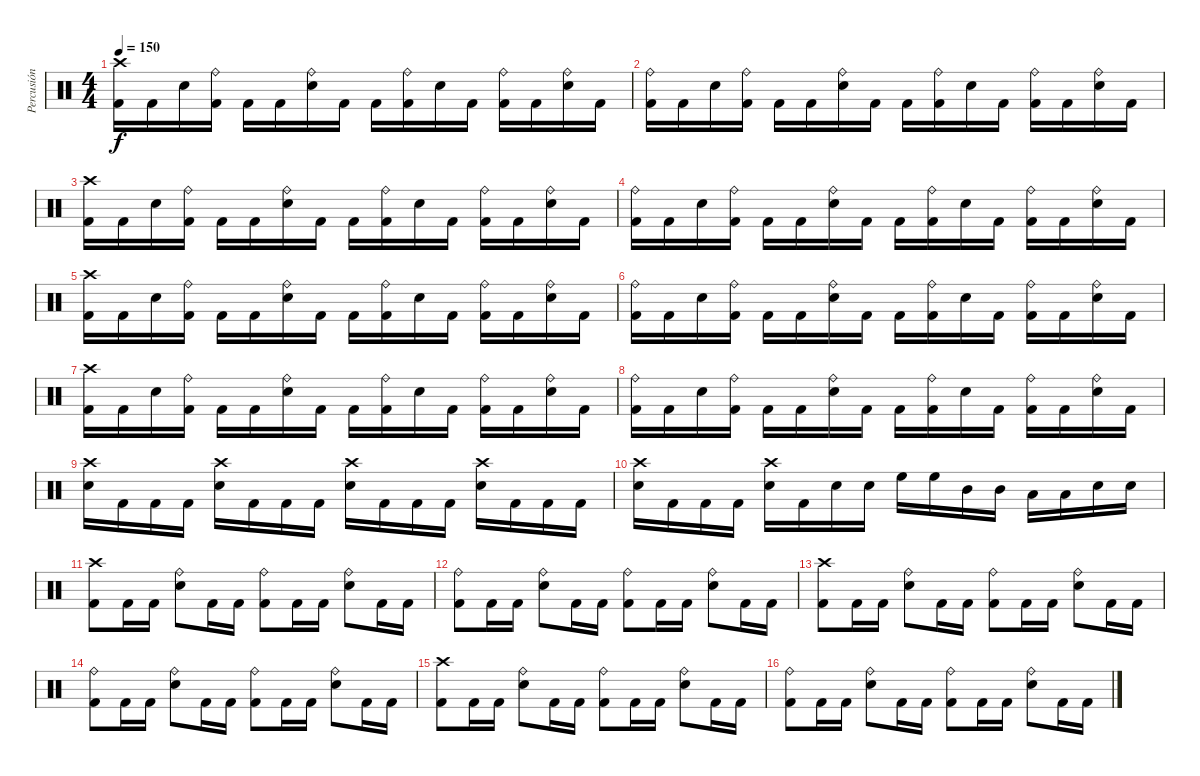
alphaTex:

\track ("Percusión" "Percusión") {instrument percussion}
\staff {score}
\articulation defaults
\ts (4 4)
\tempo 150
\clef neutral
\ks c
("Crash high (hit)" "Kick (hit) 2").16{dy f} "Kick (hit) 2".16 "Electric Snare (hit)".16 ("Ride (bell)" "Kick (hit) 2").16 "Kick (hit) 2".16 "Kick (hit) 2".16 ("Ride (bell)" "Electric Snare (hit)").16 "Kick (hit) 2".16 "Kick (hit) 2".16 ("Ride (bell)" "Kick (hit) 2").16 "Electric Snare (hit)".16 "Kick (hit) 2".16 ("Ride (bell)" "Kick (hit) 2").16 "Kick (hit) 2".16 ("Ride (bell)" "Electric Snare (hit)").16 "Kick (hit) 2".16 |
("Ride (bell)" "Kick (hit) 2").16 "Kick (hit) 2".16 "Electric Snare (hit)".16 ("Ride (bell)" "Kick (hit) 2").16 "Kick (hit) 2".16 "Kick (hit) 2".16 ("Ride (bell)" "Electric Snare (hit)").16 "Kick (hit) 2".16 "Kick (hit) 2".16 ("Ride (bell)" "Kick (hit) 2").16 "Electric Snare (hit)".16 "Kick (hit) 2".16 ("Ride (bell)" "Kick (hit) 2").16 "Kick (hit) 2".16 ("Ride (bell)" "Electric Snare (hit)").16 "Kick (hit) 2".16 |
("Crash high (hit)" "Kick (hit) 2").16 "Kick (hit) 2".16 "Electric Snare (hit)".16 ("Ride (bell)" "Kick (hit) 2").16 "Kick (hit) 2".16 "Kick (hit) 2".16 ("Ride (bell)" "Electric Snare (hit)").16 "Kick (hit) 2".16 "Kick (hit) 2".16 ("Ride (bell)" "Kick (hit) 2").16 "Electric Snare (hit)".16 "Kick (hit) 2".16 ("Ride (bell)" "Kick (hit) 2").16 "Kick (hit) 2".16 ("Ride (bell)" "Electric Snare (hit)").16 "Kick (hit) 2".16 |
("Ride (bell)" "Kick (hit) 2").16 "Kick (hit) 2".16 "Electric Snare (hit)".16 ("Ride (bell)" "Kick (hit) 2").16 "Kick (hit) 2".16 "Kick (hit) 2".16 ("Ride (bell)" "Electric Snare (hit)").16 "Kick (hit) 2".16 "Kick (hit) 2".16 ("Ride (bell)" "Kick (hit) 2").16 "Electric Snare (hit)".16 "Kick (hit) 2".16 ("Ride (bell)" "Kick (hit) 2").16 "Kick (hit) 2".16 ("Ride (bell)" "Electric Snare (hit)").16 "Kick (hit) 2".16 |
("Crash high (hit)" "Kick (hit) 2").16 "Kick (hit) 2".16 "Electric Snare (hit)".16 ("Ride (bell)" "Kick (hit) 2").16 "Kick (hit) 2".16 "Kick (hit) 2".16 ("Ride (bell)" "Electric Snare (hit)").16 "Kick (hit) 2".16 "Kick (hit) 2".16 ("Ride (bell)" "Kick (hit) 2").16 "Electric Snare (hit)".16 "Kick (hit) 2".16 ("Ride (bell)" "Kick (hit) 2").16 "Kick (hit) 2".16 ("Ride (bell)" "Electric Snare (hit)").16 "Kick (hit) 2".16 |
("Ride (bell)" "Kick (hit) 2").16 "Kick (hit) 2".16 "Electric Snare (hit)".16 ("Ride (bell)" "Kick (hit) 2").16 "Kick (hit) 2".16 "Kick (hit) 2".16 ("Ride (bell)" "Electric Snare (hit)").16 "Kick (hit) 2".16 "Kick (hit) 2".16 ("Ride (bell)" "Kick (hit) 2").16 "Electric Snare (hit)".16 "Kick (hit) 2".16 ("Ride (bell)" "Kick (hit) 2").16 "Kick (hit) 2".16 ("Ride (bell)" "Electric Snare (hit)").16 "Kick (hit) 2".16 |
("Crash high (hit)" "Kick (hit) 2").16 "Kick (hit) 2".16 "Electric Snare (hit)".16 ("Ride (bell)" "Kick (hit) 2").16 "Kick (hit) 2".16 "Kick (hit) 2".16 ("Ride (bell)" "Electric Snare (hit)").16 "Kick (hit) 2".16 "Kick (hit) 2".16 ("Ride (bell)" "Kick (hit) 2").16 "Electric Snare (hit)".16 "Kick (hit) 2".16 ("Ride (bell)" "Kick (hit) 2").16 "Kick (hit) 2".16 ("Ride (bell)" "Electric Snare (hit)").16 "Kick (hit) 2".16 |
("Ride (bell)" "Kick (hit) 2").16 "Kick (hit) 2".16 "Electric Snare (hit)".16 ("Ride (bell)" "Kick (hit) 2").16 "Kick (hit) 2".16 "Kick (hit) 2".16 ("Ride (bell)" "Electric Snare (hit)").16 "Kick (hit) 2".16 "Kick (hit) 2".16 ("Ride (bell)" "Kick (hit) 2").16 "Electric Snare (hit)".16 "Kick (hit) 2".16 ("Ride (bell)" "Kick (hit) 2").16 "Kick (hit) 2".16 ("Ride (bell)" "Electric Snare (hit)").16 "Kick (hit) 2".16 |
("Crash high (hit)" "Electric Snare (hit)").16 "Kick (hit) 2".16 "Kick (hit) 2".16 "Kick (hit) 2".16 ("Crash high (hit)" "Electric Snare (hit)").16 "Kick (hit) 2".16 "Kick (hit) 2".16 "Kick (hit) 2".16 ("Crash high (hit)" "Electric Snare (hit)").16 "Kick (hit) 2".16 "Kick (hit) 2".16 "Kick (hit) 2".16 ("Crash high (hit)" "Electric Snare (hit)").16 "Kick (hit) 2".16 "Kick (hit) 2".16 "Kick (hit) 2".16 |
("Crash high (hit)" "Electric Snare (hit)").16 "Kick (hit) 2".16 "Kick (hit) 2".16 "Kick (hit) 2".16 ("Crash high (hit)" "Electric Snare (hit)").16 "Kick (hit) 2".16 "Electric Snare (hit)".16 "Electric Snare (hit)".16 "High Floor Tom (hit)".16 "High Floor Tom (hit)".16 "Mid Tom (hit)".16 "Mid Tom (hit)".16 "Low Tom (hit)".16 "Low Tom (hit)".16 "Electric Snare (hit)".16 "Electric Snare (hit)".16 |
("Crash high (hit)" "Kick (hit) 2").8 "Kick (hit) 2".16 "Kick (hit) 2".16 ("Ride (bell)" "Electric Snare (hit)").8 "Kick (hit) 2".16 "Kick (hit) 2".16 ("Ride (bell)" "Kick (hit) 2").8 "Kick (hit) 2".16 "Kick (hit) 2".16 ("Ride (bell)" "Electric Snare (hit)").8 "Kick (hit) 2".16 "Kick (hit) 2".16 |
("Ride (bell)" "Kick (hit) 2").8 "Kick (hit) 2".16 "Kick (hit) 2".16 ("Ride (bell)" "Electric Snare (hit)").8 "Kick (hit) 2".16 "Kick (hit) 2".16 ("Ride (bell)" "Kick (hit) 2").8 "Kick (hit) 2".16 "Kick (hit) 2".16 ("Ride (bell)" "Electric Snare (hit)").8 "Kick (hit) 2".16 "Kick (hit) 2".16 |
("Crash high (hit)" "Kick (hit) 2").8 "Kick (hit) 2".16 "Kick (hit) 2".16 ("Ride (bell)" "Electric Snare (hit)").8 "Kick (hit) 2".16 "Kick (hit) 2".16 ("Ride (bell)" "Kick (hit) 2").8 "Kick (hit) 2".16 "Kick (hit) 2".16 ("Ride (bell)" "Electric Snare (hit)").8 "Kick (hit) 2".16 "Kick (hit) 2".16 |
("Ride (bell)" "Kick (hit) 2").8 "Kick (hit) 2".16 "Kick (hit) 2".16 ("Ride (bell)" "Electric Snare (hit)").8 "Kick (hit) 2".16 "Kick (hit) 2".16 ("Ride (bell)" "Kick (hit) 2").8 "Kick (hit) 2".16 "Kick (hit) 2".16 ("Ride (bell)" "Electric Snare (hit)").8 "Kick (hit) 2".16 "Kick (hit) 2".16 |
("Crash high (hit)" "Kick (hit) 2").8 "Kick (hit) 2".16 "Kick (hit) 2".16 ("Ride (bell)" "Electric Snare (hit)").8 "Kick (hit) 2".16 "Kick (hit) 2".16 ("Ride (bell)" "Kick (hit) 2").8 "Kick (hit) 2".16 "Kick (hit) 2".16 ("Ride (bell)" "Electric Snare (hit)").8 "Kick (hit) 2".16 "Kick (hit) 2".16 |
("Ride (bell)" "Kick (hit) 2").8 "Kick (hit) 2".16 "Kick (hit) 2".16 ("Ride (bell)" "Electric Snare (hit)").8 "Kick (hit) 2".16 "Kick (hit) 2".16 ("Ride (bell)" "Kick (hit) 2").8 "Kick (hit) 2".16 "Kick (hit) 2".16 ("Ride (bell)" "Electric Snare (hit)").8 "Kick (hit) 2".16 "Kick (hit) 2".16
